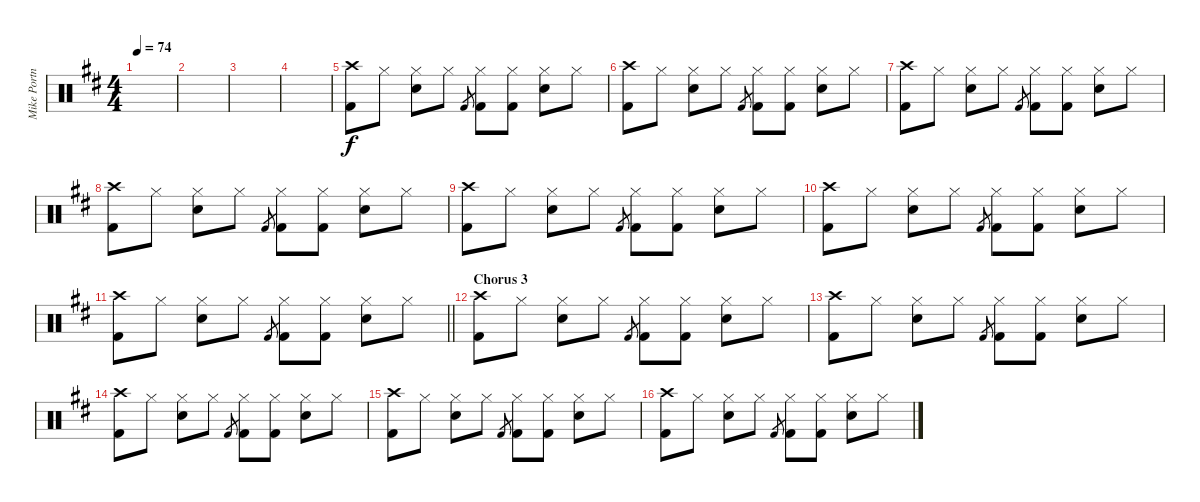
\track ("Mike Portnoy" "Mike Portn") {instrument percussion}
\staff {score}
\articulation defaults
\ts (4 4)
\tempo 74
\clef neutral
\ks bminor
|
|
|
|
("Crash high (hit)" "Kick (hit) 2").8 "Hi-Hat (closed)".8 ("Hi-Hat (closed)" "Snare (hit) 2").8 "Hi-Hat (closed)".8 "Kick (hit) 2".8{gr} ("Hi-Hat (closed)" "Kick (hit) 2").8 ("Hi-Hat (closed)" "Kick (hit) 2").8 ("Hi-Hat (closed)" "Snare (hit) 2").8 "Hi-Hat (closed)".8 |
("Crash high (hit)" "Kick (hit) 2").8 "Hi-Hat (closed)".8 ("Hi-Hat (closed)" "Snare (hit) 2").8 "Hi-Hat (closed)".8 "Kick (hit) 2".8{gr} ("Hi-Hat (closed)" "Kick (hit) 2").8 ("Hi-Hat (closed)" "Kick (hit) 2").8 ("Hi-Hat (closed)" "Snare (hit) 2").8 "Hi-Hat (closed)".8 |
("Crash high (hit)" "Kick (hit) 2").8 "Hi-Hat (closed)".8 ("Hi-Hat (closed)" "Snare (hit) 2").8 "Hi-Hat (closed)".8 "Kick (hit) 2".8{gr} ("Hi-Hat (closed)" "Kick (hit) 2").8 ("Hi-Hat (closed)" "Kick (hit) 2").8 ("Hi-Hat (closed)" "Snare (hit) 2").8 "Hi-Hat (closed)".8 |
("Crash high (hit)" "Kick (hit) 2").8 "Hi-Hat (closed)".8 ("Hi-Hat (closed)" "Snare (hit) 2").8 "Hi-Hat (closed)".8 "Kick (hit) 2".8{gr} ("Hi-Hat (closed)" "Kick (hit) 2").8 ("Hi-Hat (closed)" "Kick (hit) 2").8 ("Hi-Hat (closed)" "Snare (hit) 2").8 "Hi-Hat (closed)".8 |
("Crash high (hit)" "Kick (hit) 2").8 "Hi-Hat (closed)".8 ("Hi-Hat (closed)" "Snare (hit) 2").8 "Hi-Hat (closed)".8 "Kick (hit) 2".8{gr} ("Hi-Hat (closed)" "Kick (hit) 2").8 ("Hi-Hat (closed)" "Kick (hit) 2").8 ("Hi-Hat (closed)" "Snare (hit) 2").8 "Hi-Hat (closed)".8 |
("Crash high (hit)" "Kick (hit) 2").8 "Hi-Hat (closed)".8 ("Hi-Hat (closed)" "Snare (hit) 2").8 "Hi-Hat (closed)".8 "Kick (hit) 2".8{gr} ("Hi-Hat (closed)" "Kick (hit) 2").8 ("Hi-Hat (closed)" "Kick (hit) 2").8 ("Hi-Hat (closed)" "Snare (hit) 2").8 "Hi-Hat (closed)".8 |
\barLineRight lightlight
("Crash high (hit)" "Kick (hit) 2").8 "Hi-Hat (closed)".8 ("Hi-Hat (closed)" "Snare (hit) 2").8 "Hi-Hat (closed)".8 "Kick (hit) 2".8{gr} ("Hi-Hat (closed)" "Kick (hit) 2").8 ("Hi-Hat (closed)" "Kick (hit) 2").8 ("Hi-Hat (closed)" "Snare (hit) 2").8 "Hi-Hat (closed)".8 |
\section ("" "Chorus 3")
("Crash high (hit)" "Kick (hit) 2").8 "Hi-Hat (closed)".8 ("Hi-Hat (closed)" "Snare (hit) 2").8 "Hi-Hat (closed)".8 "Kick (hit) 2".8{gr} ("Hi-Hat (closed)" "Kick (hit) 2").8 ("Hi-Hat (closed)" "Kick (hit) 2").8 ("Hi-Hat (closed)" "Snare (hit) 2").8 "Hi-Hat (closed)".8 |
("Crash high (hit)" "Kick (hit) 2").8 "Hi-Hat (closed)".8 ("Hi-Hat (closed)" "Snare (hit) 2").8 "Hi-Hat (closed)".8 "Kick (hit) 2".8{gr} ("Hi-Hat (closed)" "Kick (hit) 2").8 ("Hi-Hat (closed)" "Kick (hit) 2").8 ("Hi-Hat (closed)" "Snare (hit) 2").8 "Hi-Hat (closed)".8 |
("Crash high (hit)" "Kick (hit) 2").8 "Hi-Hat (closed)".8 ("Hi-Hat (closed)" "Snare (hit) 2").8 "Hi-Hat (closed)".8 "Kick (hit) 2".8{gr} ("Hi-Hat (closed)" "Kick (hit) 2").8 ("Hi-Hat (closed)" "Kick (hit) 2").8 ("Hi-Hat (closed)" "Snare (hit) 2").8 "Hi-Hat (closed)".8 |
("Crash high (hit)" "Kick (hit) 2").8 "Hi-Hat (closed)".8 ("Hi-Hat (closed)" "Snare (hit) 2").8 "Hi-Hat (closed)".8 "Kick (hit) 2".8{gr} ("Hi-Hat (closed)" "Kick (hit) 2").8 ("Hi-Hat (closed)" "Kick (hit) 2").8 ("Hi-Hat (closed)" "Snare (hit) 2").8 "Hi-Hat (closed)".8 |
("Crash high (hit)" "Kick (hit) 2").8 "Hi-Hat (closed)".8 ("Hi-Hat (closed)" "Snare (hit) 2").8 "Hi-Hat (closed)".8 "Kick (hit) 2".8{gr} ("Hi-Hat (closed)" "Kick (hit) 2").8 ("Hi-Hat (closed)" "Kick (hit) 2").8 ("Hi-Hat (closed)" "Snare (hit) 2").8 "Hi-Hat (closed)".8
